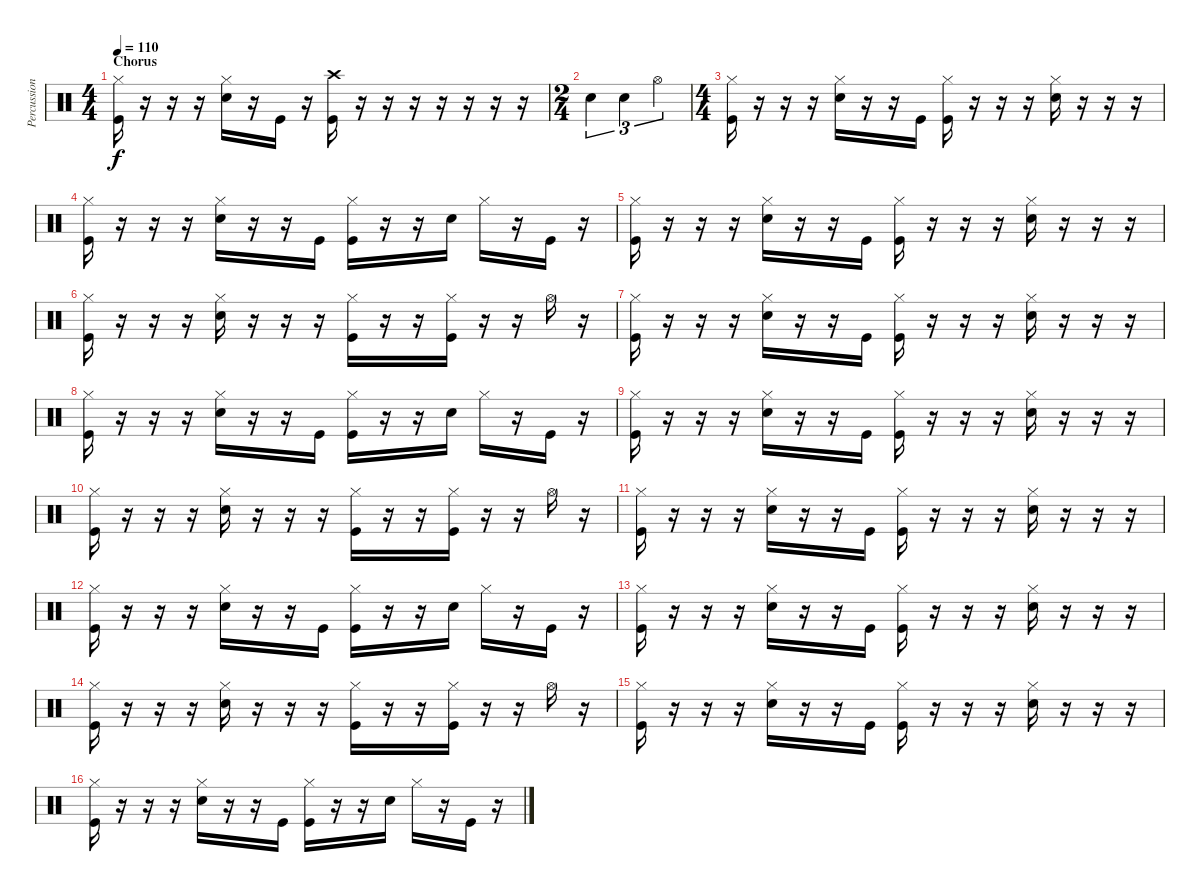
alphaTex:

\track ("Percussion" "Percussion") {instrument percussion}
\staff {score}
\articulation defaults
\ts (4 4)
\section ("" "Chorus")
\tempo 110
\clef neutral
\ks c
("Hi-Hat (closed)" "Kick (hit)").16{dy f} r.16 r.16 r.16 ("Hi-Hat (closed)" "Snare (hit) 2").16 r.16 "Kick (hit)".16 r.16 ("Crash high (hit)" "Kick (hit)").16 r.16 r.16 r.16 r.16 r.16 r.16 r.16 |
\ts (2 4)
"Snare (hit) 2".4{tu (3 2)} "Snare (hit) 2".4{tu (3 2)} "Hi-Hat (open)".4{tu (3 2)} |
\ts (4 4)
("Hi-Hat (closed)" "Kick (hit)").16 r.16 r.16 r.16 ("Hi-Hat (closed)" "Snare (hit) 2").16 r.16 r.16 "Kick (hit)".16 ("Hi-Hat (closed)" "Kick (hit)").16 r.16 r.16 r.16 ("Hi-Hat (closed)" "Snare (hit) 2").16 r.16 r.16 r.16 |
("Hi-Hat (closed)" "Kick (hit)").16 r.16 r.16 r.16 ("Hi-Hat (closed)" "Snare (hit) 2").16 r.16 r.16 "Kick (hit)".16 ("Hi-Hat (closed)" "Kick (hit)").16 r.16 r.16 "Snare (hit) 2".16 "Hi-Hat (closed)".16 r.16 "Kick (hit)".16 r.16 |
("Hi-Hat (closed)" "Kick (hit)").16 r.16 r.16 r.16 ("Hi-Hat (closed)" "Snare (hit) 2").16 r.16 r.16 "Kick (hit)".16 ("Hi-Hat (closed)" "Kick (hit)").16 r.16 r.16 r.16 ("Hi-Hat (closed)" "Snare (hit) 2").16 r.16 r.16 r.16 |
("Hi-Hat (closed)" "Kick (hit)").16 r.16 r.16 r.16 ("Hi-Hat (closed)" "Snare (hit) 2").16 r.16 r.16 r.16 ("Hi-Hat (closed)" "Kick (hit)").16 r.16 r.16 ("Hi-Hat (closed)" "Kick (hit)").16 r.16 r.16 "Hi-Hat (open)".16 r.16 |
("Hi-Hat (closed)" "Kick (hit)").16 r.16 r.16 r.16 ("Hi-Hat (closed)" "Snare (hit) 2").16 r.16 r.16 "Kick (hit)".16 ("Hi-Hat (closed)" "Kick (hit)").16 r.16 r.16 r.16 ("Hi-Hat (closed)" "Snare (hit) 2").16 r.16 r.16 r.16 |
("Hi-Hat (closed)" "Kick (hit)").16 r.16 r.16 r.16 ("Hi-Hat (closed)" "Snare (hit) 2").16 r.16 r.16 "Kick (hit)".16 ("Hi-Hat (closed)" "Kick (hit)").16 r.16 r.16 "Snare (hit) 2".16 "Hi-Hat (closed)".16 r.16 "Kick (hit)".16 r.16 |
("Hi-Hat (closed)" "Kick (hit)").16 r.16 r.16 r.16 ("Hi-Hat (closed)" "Snare (hit) 2").16 r.16 r.16 "Kick (hit)".16 ("Hi-Hat (closed)" "Kick (hit)").16 r.16 r.16 r.16 ("Hi-Hat (closed)" "Snare (hit) 2").16 r.16 r.16 r.16 |
("Hi-Hat (closed)" "Kick (hit)").16 r.16 r.16 r.16 ("Hi-Hat (closed)" "Snare (hit) 2").16 r.16 r.16 r.16 ("Hi-Hat (closed)" "Kick (hit)").16 r.16 r.16 ("Hi-Hat (closed)" "Kick (hit)").16 r.16 r.16 "Hi-Hat (open)".16 r.16 |
("Hi-Hat (closed)" "Kick (hit)").16 r.16 r.16 r.16 ("Hi-Hat (closed)" "Snare (hit) 2").16 r.16 r.16 "Kick (hit)".16 ("Hi-Hat (closed)" "Kick (hit)").16 r.16 r.16 r.16 ("Hi-Hat (closed)" "Snare (hit) 2").16 r.16 r.16 r.16 |
("Hi-Hat (closed)" "Kick (hit)").16 r.16 r.16 r.16 ("Hi-Hat (closed)" "Snare (hit) 2").16 r.16 r.16 "Kick (hit)".16 ("Hi-Hat (closed)" "Kick (hit)").16 r.16 r.16 "Snare (hit) 2".16 "Hi-Hat (closed)".16 r.16 "Kick (hit)".16 r.16 |
("Hi-Hat (closed)" "Kick (hit)").16 r.16 r.16 r.16 ("Hi-Hat (closed)" "Snare (hit) 2").16 r.16 r.16 "Kick (hit)".16 ("Hi-Hat (closed)" "Kick (hit)").16 r.16 r.16 r.16 ("Hi-Hat (closed)" "Snare (hit) 2").16 r.16 r.16 r.16 |
("Hi-Hat (closed)" "Kick (hit)").16 r.16 r.16 r.16 ("Hi-Hat (closed)" "Snare (hit) 2").16 r.16 r.16 r.16 ("Hi-Hat (closed)" "Kick (hit)").16 r.16 r.16 ("Hi-Hat (closed)" "Kick (hit)").16 r.16 r.16 "Hi-Hat (open)".16 r.16 |
("Hi-Hat (closed)" "Kick (hit)").16 r.16 r.16 r.16 ("Hi-Hat (closed)" "Snare (hit) 2").16 r.16 r.16 "Kick (hit)".16 ("Hi-Hat (closed)" "Kick (hit)").16 r.16 r.16 r.16 ("Hi-Hat (closed)" "Snare (hit) 2").16 r.16 r.16 r.16 |
("Hi-Hat (closed)" "Kick (hit)").16 r.16 r.16 r.16 ("Hi-Hat (closed)" "Snare (hit) 2").16 r.16 r.16 "Kick (hit)".16 ("Hi-Hat (closed)" "Kick (hit)").16 r.16 r.16 "Snare (hit) 2".16 "Hi-Hat (closed)".16 r.16 "Kick (hit)".16 r.16
